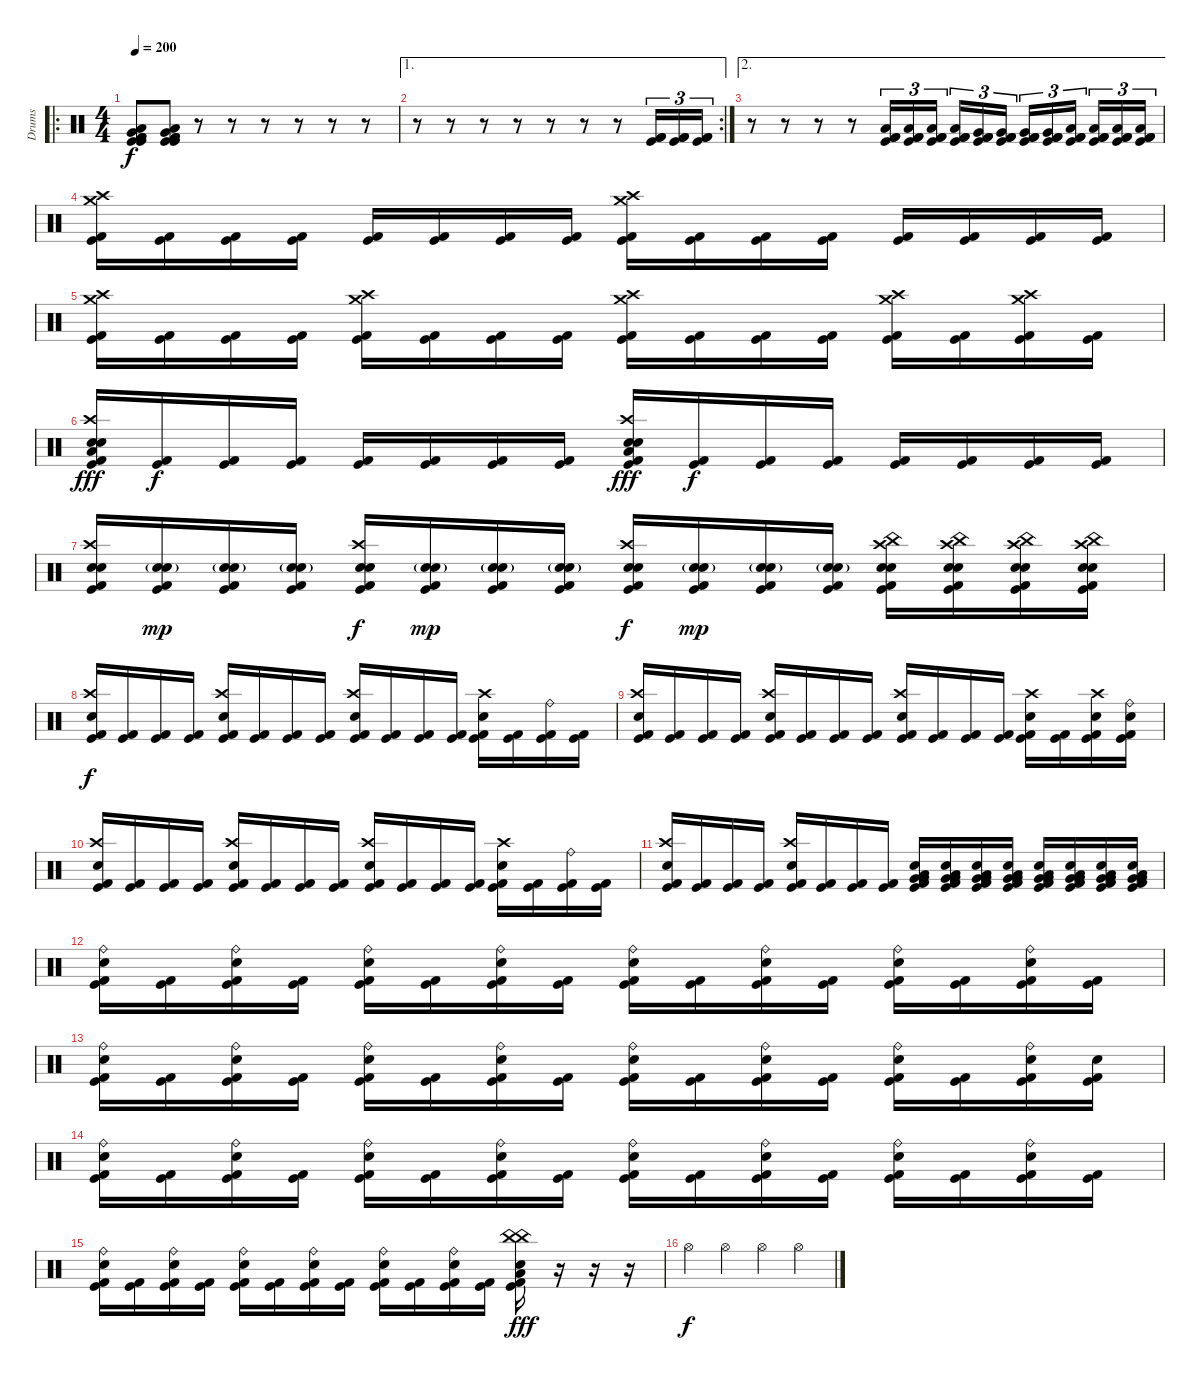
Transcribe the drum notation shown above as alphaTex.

\track ("Drums" "Drums") {instrument percussion}
\staff {score}
\articulation defaults
\ro
\ts (4 4)
\tempo 200
\clef neutral
\ks c
("Kick (hit)" "Kick (hit) 2" "Kick (hit)" "Kick (hit) 2" "Low Floor Tom (hit)" "Very Low Tom (hit)").8{dy f} ("Kick (hit)" "Kick (hit) 2" "Kick (hit)" "Kick (hit) 2" "Low Floor Tom (hit)" "Very Low Tom (hit)").8 r.8 r.8 r.8 r.8 r.8 r.8 |
\ae 1
\rc 2
r.8 r.8 r.8 r.8 r.8 r.8 r.8 ("Kick (hit) 2" "Kick (hit)" "Kick (hit) 2").16{tu (3 2)} ("Kick (hit) 2" "Kick (hit)" "Kick (hit) 2").16{tu (3 2)} ("Kick (hit) 2" "Kick (hit)" "Kick (hit) 2").16{tu (3 2)} |
\ae 2
r.8 r.8 r.8 r.8 ("Low Tom (hit)" "Kick (hit) 2" "Kick (hit)" "Kick (hit) 2").16{tu (3 2)} ("Low Tom (hit)" "Kick (hit) 2" "Kick (hit)" "Kick (hit) 2").16{tu (3 2)} ("Low Tom (hit)" "Kick (hit) 2" "Kick (hit)" "Kick (hit) 2").16{tu (3 2)} ("Low Tom (hit)" "Kick (hit) 2" "Kick (hit)" "Kick (hit) 2").16{tu (3 2)} ("Very Low Tom (hit)" "Kick (hit) 2" "Kick (hit)" "Kick (hit) 2").16{tu (3 2)} ("Very Low Tom (hit)" "Kick (hit) 2" "Kick (hit)" "Kick (hit) 2").16{tu (3 2)} ("Very Low Tom (hit)" "Kick (hit) 2" "Kick (hit)" "Kick (hit) 2").16{tu (3 2)} ("Very Low Tom (hit)" "Kick (hit) 2" "Kick (hit)" "Kick (hit) 2").16{tu (3 2)} ("Low Floor Tom (hit)" "Kick (hit) 2" "Kick (hit)" "Kick (hit) 2").16{tu (3 2)} ("Low Floor Tom (hit)" "Kick (hit) 2" "Kick (hit)" "Kick (hit) 2").16{tu (3 2)} ("Low Floor Tom (hit)" "Kick (hit) 2" "Kick (hit)" "Kick (hit) 2").16{tu (3 2)} ("Low Floor Tom (hit)" "Kick (hit) 2" "Kick (hit)" "Kick (hit) 2").16{tu (3 2)} |
("Crash high (hit)" "Crash medium (hit)" "Kick (hit)" "Kick (hit) 2").16 ("Kick (hit)" "Kick (hit) 2").16 ("Kick (hit)" "Kick (hit) 2").16 ("Kick (hit)" "Kick (hit) 2").16 ("Kick (hit)" "Kick (hit) 2").16 ("Kick (hit)" "Kick (hit) 2").16 ("Kick (hit)" "Kick (hit) 2").16 ("Kick (hit)" "Kick (hit) 2").16 ("Crash high (hit)" "Crash medium (hit)" "Kick (hit)" "Kick (hit) 2").16 ("Kick (hit)" "Kick (hit) 2").16 ("Kick (hit)" "Kick (hit) 2").16 ("Kick (hit)" "Kick (hit) 2").16 ("Kick (hit)" "Kick (hit) 2").16 ("Kick (hit)" "Kick (hit) 2").16 ("Kick (hit)" "Kick (hit) 2").16 ("Kick (hit)" "Kick (hit) 2").16 |
("Crash high (hit)" "Crash medium (hit)" "Kick (hit)" "Kick (hit) 2").16 ("Kick (hit)" "Kick (hit) 2").16 ("Kick (hit)" "Kick (hit) 2").16 ("Kick (hit)" "Kick (hit) 2").16 ("Crash high (hit)" "Crash medium (hit)" "Kick (hit)" "Kick (hit) 2").16 ("Kick (hit)" "Kick (hit) 2").16 ("Kick (hit)" "Kick (hit) 2").16 ("Kick (hit)" "Kick (hit) 2").16 ("Crash high (hit)" "Crash medium (hit)" "Kick (hit)" "Kick (hit) 2").16 ("Kick (hit)" "Kick (hit) 2").16 ("Kick (hit)" "Kick (hit) 2").16 ("Kick (hit)" "Kick (hit) 2").16 ("Crash high (hit)" "Crash medium (hit)" "Kick (hit)" "Kick (hit) 2").16 ("Kick (hit)" "Kick (hit) 2").16 ("Crash high (hit)" "Crash medium (hit)" "Kick (hit)" "Kick (hit) 2").16 ("Kick (hit)" "Kick (hit) 2").16 |
("Crash high (hit)" "Low Floor Tom (hit)" "Electric Snare (hit)" "Electric Snare (hit)" "Kick (hit)" "Kick (hit) 2").16{dy fff} ("Kick (hit)" "Kick (hit) 2").16{dy f} ("Kick (hit)" "Kick (hit) 2").16 ("Kick (hit)" "Kick (hit) 2").16 ("Kick (hit)" "Kick (hit) 2").16 ("Kick (hit)" "Kick (hit) 2").16 ("Kick (hit)" "Kick (hit) 2").16 ("Kick (hit)" "Kick (hit) 2").16 ("Crash high (hit)" "Low Floor Tom (hit)" "Electric Snare (hit)" "Electric Snare (hit)" "Kick (hit)" "Kick (hit) 2").16{dy fff} ("Kick (hit)" "Kick (hit) 2").16{dy f} ("Kick (hit)" "Kick (hit) 2").16 ("Kick (hit)" "Kick (hit) 2").16 ("Kick (hit)" "Kick (hit) 2").16 ("Kick (hit)" "Kick (hit) 2").16 ("Kick (hit)" "Kick (hit) 2").16 ("Kick (hit)" "Kick (hit) 2").16 |
("Crash high (hit)" "Electric Snare (hit)" "Electric Snare (hit)" "Kick (hit)" "Kick (hit) 2").16 ("Electric Snare (hit)"{g} "Electric Snare (hit)"{g} "Kick (hit)" "Kick (hit) 2").16{dy mp} ("Electric Snare (hit)"{g} "Electric Snare (hit)"{g} "Kick (hit)" "Kick (hit) 2").16 ("Electric Snare (hit)"{g} "Electric Snare (hit)"{g} "Kick (hit)" "Kick (hit) 2").16 ("Crash high (hit)" "Electric Snare (hit)" "Electric Snare (hit)" "Kick (hit)" "Kick (hit) 2").16{dy f} ("Electric Snare (hit)"{g} "Electric Snare (hit)"{g} "Kick (hit)" "Kick (hit) 2").16{dy mp} ("Electric Snare (hit)"{g} "Electric Snare (hit)"{g} "Kick (hit)" "Kick (hit) 2").16 ("Electric Snare (hit)"{g} "Electric Snare (hit)"{g} "Kick (hit)" "Kick (hit) 2").16 ("Crash high (hit)" "Electric Snare (hit)" "Electric Snare (hit)" "Kick (hit)" "Kick (hit) 2").16{dy f} ("Electric Snare (hit)"{g} "Electric Snare (hit)"{g} "Kick (hit)" "Kick (hit) 2").16{dy mp} ("Electric Snare (hit)"{g} "Electric Snare (hit)"{g} "Kick (hit)" "Kick (hit) 2").16 ("Electric Snare (hit)"{g} "Electric Snare (hit)"{g} "Kick (hit)" "Kick (hit) 2").16 ("Crash high (hit)" "China (hit)" "Electric Snare (hit)" "Electric Snare (hit)" "Kick (hit)" "Kick (hit) 2").16 ("Crash high (hit)" "China (hit)" "Electric Snare (hit)" "Electric Snare (hit)" "Kick (hit)" "Kick (hit) 2").16 ("Crash high (hit)" "China (hit)" "Electric Snare (hit)" "Electric Snare (hit)" "Kick (hit)" "Kick (hit) 2").16 ("Crash high (hit)" "China (hit)" "Electric Snare (hit)" "Electric Snare (hit)" "Kick (hit)" "Kick (hit) 2").16 |
("Crash high (hit)" "Electric Snare (hit)" "Kick (hit)" "Kick (hit) 2").16{dy f} ("Kick (hit)" "Kick (hit) 2").16 ("Kick (hit)" "Kick (hit) 2").16 ("Kick (hit)" "Kick (hit) 2").16 ("Crash high (hit)" "Electric Snare (hit)" "Kick (hit)" "Kick (hit) 2").16 ("Kick (hit)" "Kick (hit) 2").16 ("Kick (hit)" "Kick (hit) 2").16 ("Kick (hit)" "Kick (hit) 2").16 ("Crash high (hit)" "Electric Snare (hit)" "Kick (hit)" "Kick (hit) 2").16 ("Kick (hit)" "Kick (hit) 2").16 ("Kick (hit)" "Kick (hit) 2").16 ("Kick (hit)" "Kick (hit) 2").16 ("Crash high (hit)" "Electric Snare (hit)" "Kick (hit)" "Kick (hit) 2").16 ("Kick (hit)" "Kick (hit) 2").16 ("Ride (bell)" "Kick (hit)" "Kick (hit) 2").16 ("Kick (hit)" "Kick (hit) 2").16 |
("Crash high (hit)" "Electric Snare (hit)" "Kick (hit)" "Kick (hit) 2").16 ("Kick (hit)" "Kick (hit) 2").16 ("Kick (hit)" "Kick (hit) 2").16 ("Kick (hit)" "Kick (hit) 2").16 ("Crash high (hit)" "Electric Snare (hit)" "Kick (hit)" "Kick (hit) 2").16 ("Kick (hit)" "Kick (hit) 2").16 ("Kick (hit)" "Kick (hit) 2").16 ("Kick (hit)" "Kick (hit) 2").16 ("Crash high (hit)" "Electric Snare (hit)" "Kick (hit)" "Kick (hit) 2").16 ("Kick (hit)" "Kick (hit) 2").16 ("Kick (hit)" "Kick (hit) 2").16 ("Kick (hit)" "Kick (hit) 2").16 ("Crash high (hit)" "Electric Snare (hit)" "Kick (hit)" "Kick (hit) 2").16 ("Kick (hit)" "Kick (hit) 2").16 ("Crash high (hit)" "Electric Snare (hit)" "Kick (hit)" "Kick (hit) 2").16 ("Ride (bell)" "Electric Snare (hit)" "Kick (hit)" "Kick (hit) 2").16 |
("Crash high (hit)" "Electric Snare (hit)" "Kick (hit)" "Kick (hit) 2").16 ("Kick (hit)" "Kick (hit) 2").16 ("Kick (hit)" "Kick (hit) 2").16 ("Kick (hit)" "Kick (hit) 2").16 ("Crash high (hit)" "Electric Snare (hit)" "Kick (hit)" "Kick (hit) 2").16 ("Kick (hit)" "Kick (hit) 2").16 ("Kick (hit)" "Kick (hit) 2").16 ("Kick (hit)" "Kick (hit) 2").16 ("Crash high (hit)" "Electric Snare (hit)" "Kick (hit)" "Kick (hit) 2").16 ("Kick (hit)" "Kick (hit) 2").16 ("Kick (hit)" "Kick (hit) 2").16 ("Kick (hit)" "Kick (hit) 2").16 ("Crash high (hit)" "Electric Snare (hit)" "Kick (hit)" "Kick (hit) 2").16 ("Kick (hit)" "Kick (hit) 2").16 ("Ride (bell)" "Kick (hit)" "Kick (hit) 2").16 ("Kick (hit)" "Kick (hit) 2").16 |
("Crash high (hit)" "Electric Snare (hit)" "Kick (hit)" "Kick (hit) 2").16 ("Kick (hit)" "Kick (hit) 2").16 ("Kick (hit)" "Kick (hit) 2").16 ("Kick (hit)" "Kick (hit) 2").16 ("Crash high (hit)" "Electric Snare (hit)" "Kick (hit)" "Kick (hit) 2").16 ("Kick (hit)" "Kick (hit) 2").16 ("Kick (hit)" "Kick (hit) 2").16 ("Kick (hit)" "Kick (hit) 2").16 ("Very Low Tom (hit)" "Very Low Tom (hit)" "Low Floor Tom (hit)" "Electric Snare (hit)" "Kick (hit)" "Kick (hit) 2").16 ("Very Low Tom (hit)" "Very Low Tom (hit)" "Low Floor Tom (hit)" "Electric Snare (hit)" "Kick (hit)" "Kick (hit) 2").16 ("Very Low Tom (hit)" "Very Low Tom (hit)" "Low Floor Tom (hit)" "Electric Snare (hit)" "Kick (hit)" "Kick (hit) 2").16 ("Very Low Tom (hit)" "Very Low Tom (hit)" "Low Floor Tom (hit)" "Electric Snare (hit)" "Kick (hit)" "Kick (hit) 2").16 ("Very Low Tom (hit)" "Very Low Tom (hit)" "Low Floor Tom (hit)" "Electric Snare (hit)" "Kick (hit)" "Kick (hit) 2").16 ("Very Low Tom (hit)" "Very Low Tom (hit)" "Low Floor Tom (hit)" "Electric Snare (hit)" "Kick (hit)" "Kick (hit) 2").16 ("Very Low Tom (hit)" "Very Low Tom (hit)" "Low Floor Tom (hit)" "Electric Snare (hit)" "Kick (hit)" "Kick (hit) 2").16 ("Very Low Tom (hit)" "Very Low Tom (hit)" "Low Floor Tom (hit)" "Electric Snare (hit)" "Kick (hit)" "Kick (hit) 2").16 |
("Ride (bell)" "Electric Snare (hit)" "Kick (hit)" "Kick (hit) 2").16 ("Kick (hit)" "Kick (hit) 2").16 ("Ride (bell)" "Electric Snare (hit)" "Kick (hit)" "Kick (hit) 2").16 ("Kick (hit)" "Kick (hit) 2").16 ("Ride (bell)" "Electric Snare (hit)" "Kick (hit)" "Kick (hit) 2").16 ("Kick (hit)" "Kick (hit) 2").16 ("Ride (bell)" "Electric Snare (hit)" "Kick (hit)" "Kick (hit) 2").16 ("Kick (hit)" "Kick (hit) 2").16 ("Ride (bell)" "Electric Snare (hit)" "Kick (hit)" "Kick (hit) 2").16 ("Kick (hit)" "Kick (hit) 2").16 ("Ride (bell)" "Electric Snare (hit)" "Kick (hit)" "Kick (hit) 2").16 ("Kick (hit)" "Kick (hit) 2").16 ("Ride (bell)" "Electric Snare (hit)" "Kick (hit)" "Kick (hit) 2").16 ("Kick (hit)" "Kick (hit) 2").16 ("Ride (bell)" "Electric Snare (hit)" "Kick (hit)" "Kick (hit) 2").16 ("Kick (hit)" "Kick (hit) 2").16 |
("Ride (bell)" "Electric Snare (hit)" "Kick (hit)" "Kick (hit) 2").16 ("Kick (hit)" "Kick (hit) 2").16 ("Ride (bell)" "Electric Snare (hit)" "Kick (hit)" "Kick (hit) 2").16 ("Kick (hit)" "Kick (hit) 2").16 ("Ride (bell)" "Electric Snare (hit)" "Kick (hit)" "Kick (hit) 2").16 ("Kick (hit)" "Kick (hit) 2").16 ("Ride (bell)" "Electric Snare (hit)" "Kick (hit)" "Kick (hit) 2").16 ("Kick (hit)" "Kick (hit) 2").16 ("Ride (bell)" "Electric Snare (hit)" "Kick (hit)" "Kick (hit) 2").16 ("Kick (hit)" "Kick (hit) 2").16 ("Ride (bell)" "Electric Snare (hit)" "Kick (hit)" "Kick (hit) 2").16 ("Kick (hit)" "Kick (hit) 2").16 ("Ride (bell)" "Electric Snare (hit)" "Kick (hit)" "Kick (hit) 2").16 ("Kick (hit)" "Kick (hit) 2").16 ("Ride (bell)" "Electric Snare (hit)" "Kick (hit)" "Kick (hit) 2").16 ("Electric Snare (hit)" "Kick (hit)" "Kick (hit) 2").16 |
("Ride (bell)" "Electric Snare (hit)" "Kick (hit)" "Kick (hit) 2").16 ("Kick (hit)" "Kick (hit) 2").16 ("Ride (bell)" "Electric Snare (hit)" "Kick (hit)" "Kick (hit) 2").16 ("Kick (hit)" "Kick (hit) 2").16 ("Ride (bell)" "Electric Snare (hit)" "Kick (hit)" "Kick (hit) 2").16 ("Kick (hit)" "Kick (hit) 2").16 ("Ride (bell)" "Electric Snare (hit)" "Kick (hit)" "Kick (hit) 2").16 ("Kick (hit)" "Kick (hit) 2").16 ("Ride (bell)" "Electric Snare (hit)" "Kick (hit)" "Kick (hit) 2").16 ("Kick (hit)" "Kick (hit) 2").16 ("Ride (bell)" "Electric Snare (hit)" "Kick (hit)" "Kick (hit) 2").16 ("Kick (hit)" "Kick (hit) 2").16 ("Ride (bell)" "Electric Snare (hit)" "Kick (hit)" "Kick (hit) 2").16 ("Kick (hit)" "Kick (hit) 2").16 ("Ride (bell)" "Electric Snare (hit)" "Kick (hit)" "Kick (hit) 2").16 ("Kick (hit)" "Kick (hit) 2").16 |
("Ride (bell)" "Electric Snare (hit)" "Kick (hit)" "Kick (hit) 2").16 ("Kick (hit)" "Kick (hit) 2").16 ("Ride (bell)" "Electric Snare (hit)" "Kick (hit)" "Kick (hit) 2").16 ("Kick (hit)" "Kick (hit) 2").16 ("Ride (bell)" "Electric Snare (hit)" "Kick (hit)" "Kick (hit) 2").16 ("Kick (hit)" "Kick (hit) 2").16 ("Ride (bell)" "Electric Snare (hit)" "Kick (hit)" "Kick (hit) 2").16 ("Kick (hit)" "Kick (hit) 2").16 ("Ride (bell)" "Electric Snare (hit)" "Kick (hit)" "Kick (hit) 2").16 ("Kick (hit)" "Kick (hit) 2").16 ("Ride (bell)" "Electric Snare (hit)" "Kick (hit)" "Kick (hit) 2").16 ("Kick (hit)" "Kick (hit) 2").16 ("China (hit)" "China (hit)" "Low Floor Tom (hit)" "Electric Snare (hit)" "Kick (hit)" "Kick (hit) 2").16{dy fff} r.16 r.16 r.16 |
"Hi-Hat (open)".4{dy f} "Hi-Hat (open)".4 "Hi-Hat (open)".4 "Hi-Hat (open)".4
